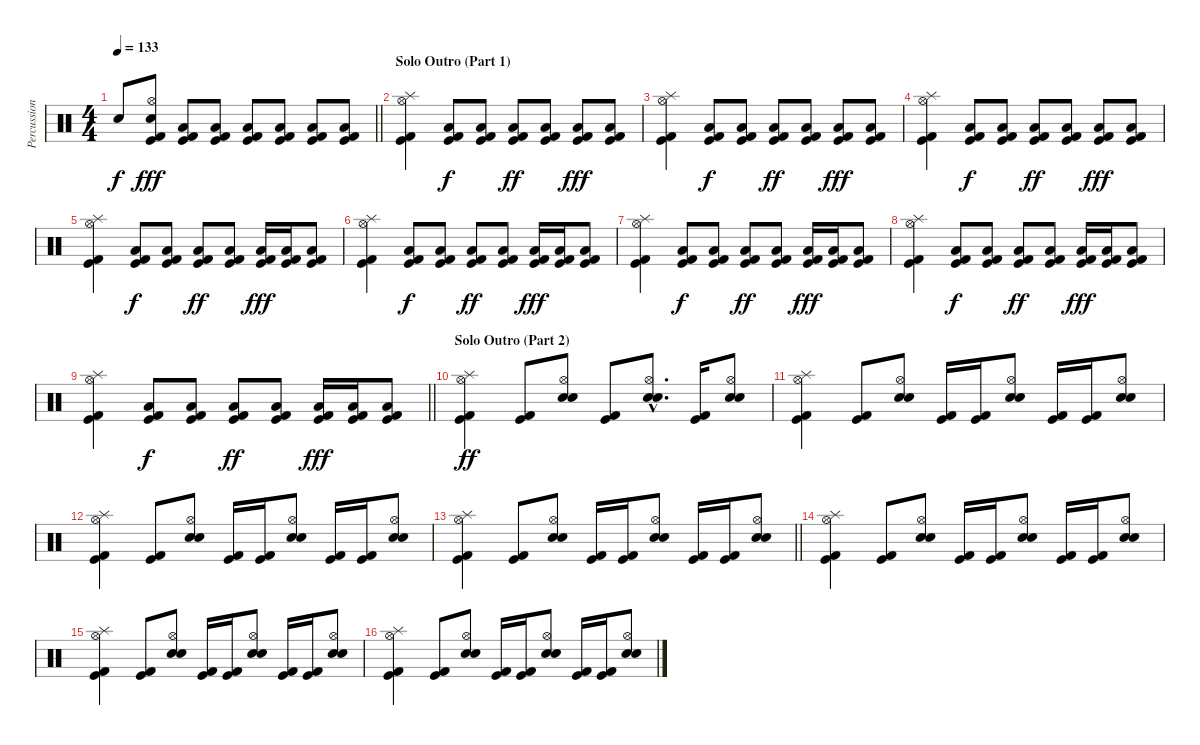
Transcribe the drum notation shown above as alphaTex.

\track ("Percussion" "Percussion") {instrument percussion}
\staff {score}
\articulation defaults
\ts (4 4)
\tempo 133
\clef neutral
\barLineRight lightlight
\ks c "Snare (hit)"{t}.8{dy f}
("Hi-Hat (open)" "Snare (hit) 2" "Kick (hit)" "Kick (hit) 2").8{dy fff} ("Low Tom (hit)" "Kick (hit)" "Kick (hit) 2").8 ("Low Tom (hit)" "Kick (hit)" "Kick (hit) 2").8 ("Low Tom (hit)" "Kick (hit)" "Kick (hit) 2").8 ("Low Tom (hit)" "Kick (hit)" "Kick (hit) 2").8 ("Low Tom (hit)" "Kick (hit)" "Kick (hit) 2").8 ("Low Tom (hit)" "Kick (hit)" "Kick (hit) 2").8 |
\section ("" "Solo Outro (Part 1)")
("Splash (hit)" "Hi-Hat (open)" "Kick (hit)" "Kick (hit) 2").4 ("Low Tom (hit)" "Kick (hit)" "Kick (hit) 2").8{dy f} ("Low Tom (hit)" "Kick (hit)" "Kick (hit) 2").8 ("Low Tom (hit)" "Kick (hit)" "Kick (hit) 2").8{dy ff} ("Low Tom (hit)" "Kick (hit)" "Kick (hit) 2").8 ("Low Tom (hit)" "Kick (hit)" "Kick (hit) 2").8{dy fff} ("Low Tom (hit)" "Kick (hit)" "Kick (hit) 2").8 |
("Splash (hit)" "Hi-Hat (open)" "Kick (hit)" "Kick (hit) 2").4 ("Low Tom (hit)" "Kick (hit)" "Kick (hit) 2").8{dy f} ("Low Tom (hit)" "Kick (hit)" "Kick (hit) 2").8 ("Low Tom (hit)" "Kick (hit)" "Kick (hit) 2").8{dy ff} ("Low Tom (hit)" "Kick (hit)" "Kick (hit) 2").8 ("Low Tom (hit)" "Kick (hit)" "Kick (hit) 2").8{dy fff} ("Low Tom (hit)" "Kick (hit)" "Kick (hit) 2").8 |
("Splash (hit)" "Hi-Hat (open)" "Kick (hit)" "Kick (hit) 2").4 ("Low Tom (hit)" "Kick (hit)" "Kick (hit) 2").8{dy f} ("Low Tom (hit)" "Kick (hit)" "Kick (hit) 2").8 ("Low Tom (hit)" "Kick (hit)" "Kick (hit) 2").8{dy ff} ("Low Tom (hit)" "Kick (hit)" "Kick (hit) 2").8 ("Low Tom (hit)" "Kick (hit)" "Kick (hit) 2").8{dy fff} ("Low Tom (hit)" "Kick (hit)" "Kick (hit) 2").8 |
("Splash (hit)" "Hi-Hat (open)" "Kick (hit)" "Kick (hit) 2").4 ("Low Tom (hit)" "Kick (hit)" "Kick (hit) 2").8{dy f} ("Low Tom (hit)" "Kick (hit)" "Kick (hit) 2").8 ("Low Tom (hit)" "Kick (hit)" "Kick (hit) 2").8{dy ff} ("Low Tom (hit)" "Kick (hit)" "Kick (hit) 2").8 ("Low Tom (hit)" "Kick (hit)" "Kick (hit) 2").16{dy fff} ("Low Tom (hit)" "Kick (hit)" "Kick (hit) 2").16 ("Low Tom (hit)" "Kick (hit)" "Kick (hit) 2").8 |
("Splash (hit)" "Hi-Hat (open)" "Kick (hit)" "Kick (hit) 2").4 ("Low Tom (hit)" "Kick (hit)" "Kick (hit) 2").8{dy f} ("Low Tom (hit)" "Kick (hit)" "Kick (hit) 2").8 ("Low Tom (hit)" "Kick (hit)" "Kick (hit) 2").8{dy ff} ("Low Tom (hit)" "Kick (hit)" "Kick (hit) 2").8 ("Low Tom (hit)" "Kick (hit)" "Kick (hit) 2").16{dy fff} ("Low Tom (hit)" "Kick (hit)" "Kick (hit) 2").16 ("Low Tom (hit)" "Kick (hit)" "Kick (hit) 2").8 |
("Splash (hit)" "Hi-Hat (open)" "Kick (hit)" "Kick (hit) 2").4 ("Low Tom (hit)" "Kick (hit)" "Kick (hit) 2").8{dy f} ("Low Tom (hit)" "Kick (hit)" "Kick (hit) 2").8 ("Low Tom (hit)" "Kick (hit)" "Kick (hit) 2").8{dy ff} ("Low Tom (hit)" "Kick (hit)" "Kick (hit) 2").8 ("Low Tom (hit)" "Kick (hit)" "Kick (hit) 2").16{dy fff} ("Low Tom (hit)" "Kick (hit)" "Kick (hit) 2").16 ("Low Tom (hit)" "Kick (hit)" "Kick (hit) 2").8 |
("Splash (hit)" "Hi-Hat (open)" "Kick (hit)" "Kick (hit) 2").4 ("Low Tom (hit)" "Kick (hit)" "Kick (hit) 2").8{dy f} ("Low Tom (hit)" "Kick (hit)" "Kick (hit) 2").8 ("Low Tom (hit)" "Kick (hit)" "Kick (hit) 2").8{dy ff} ("Low Tom (hit)" "Kick (hit)" "Kick (hit) 2").8 ("Low Tom (hit)" "Kick (hit)" "Kick (hit) 2").16{dy fff} ("Low Tom (hit)" "Kick (hit)" "Kick (hit) 2").16 ("Low Tom (hit)" "Kick (hit)" "Kick (hit) 2").8 |
\barLineRight lightlight
("Splash (hit)" "Hi-Hat (open)" "Kick (hit)" "Kick (hit) 2").4 ("Low Tom (hit)" "Kick (hit)" "Kick (hit) 2").8{dy f} ("Low Tom (hit)" "Kick (hit)" "Kick (hit) 2").8 ("Low Tom (hit)" "Kick (hit)" "Kick (hit) 2").8{dy ff} ("Low Tom (hit)" "Kick (hit)" "Kick (hit) 2").8 ("Low Tom (hit)" "Kick (hit)" "Kick (hit) 2").16{dy fff} ("Low Tom (hit)" "Kick (hit)" "Kick (hit) 2").16 ("Low Tom (hit)" "Kick (hit)" "Kick (hit) 2").8 |
\section ("" "Solo Outro (Part 2)")
("Splash (hit)" "Hi-Hat (open)" "Kick (hit)" "Kick (hit) 2").4{dy ff} ("Kick (hit)" "Kick (hit) 2").8 ("Hi-Hat (open)" "Snare (hit) 2" "Electric Snare (hit)").8 ("Kick (hit)" "Kick (hit) 2").8 ("Hi-Hat (open)"{hac} "Snare (hit) 2"{hac} "Electric Snare (hit)"{hac}).8{d} ("Kick (hit)" "Kick (hit) 2").16 ("Hi-Hat (open)" "Snare (hit) 2" "Electric Snare (hit)").8 |
("Splash (hit)" "Hi-Hat (open)" "Kick (hit)" "Kick (hit) 2").4 ("Kick (hit)" "Kick (hit) 2").8 ("Hi-Hat (open)" "Snare (hit) 2" "Electric Snare (hit)").8 ("Kick (hit)" "Kick (hit) 2").16 ("Kick (hit)" "Kick (hit) 2").16 ("Hi-Hat (open)" "Snare (hit) 2" "Electric Snare (hit)").8 ("Kick (hit)" "Kick (hit) 2").16 ("Kick (hit)" "Kick (hit) 2").16 ("Hi-Hat (open)" "Snare (hit) 2" "Electric Snare (hit)").8 |
("Splash (hit)" "Hi-Hat (open)" "Kick (hit)" "Kick (hit) 2").4 ("Kick (hit)" "Kick (hit) 2").8 ("Hi-Hat (open)" "Snare (hit) 2" "Electric Snare (hit)").8 ("Kick (hit)" "Kick (hit) 2").16 ("Kick (hit)" "Kick (hit) 2").16 ("Hi-Hat (open)" "Snare (hit) 2" "Electric Snare (hit)").8 ("Kick (hit)" "Kick (hit) 2").16 ("Kick (hit)" "Kick (hit) 2").16 ("Hi-Hat (open)" "Snare (hit) 2" "Electric Snare (hit)").8 |
\barLineRight lightlight
("Splash (hit)" "Hi-Hat (open)" "Kick (hit)" "Kick (hit) 2").4 ("Kick (hit)" "Kick (hit) 2").8 ("Hi-Hat (open)" "Snare (hit) 2" "Electric Snare (hit)").8 ("Kick (hit)" "Kick (hit) 2").16 ("Kick (hit)" "Kick (hit) 2").16 ("Hi-Hat (open)" "Snare (hit) 2" "Electric Snare (hit)").8 ("Kick (hit)" "Kick (hit) 2").16 ("Kick (hit)" "Kick (hit) 2").16 ("Hi-Hat (open)" "Snare (hit) 2" "Electric Snare (hit)").8 |
("Splash (hit)" "Hi-Hat (open)" "Kick (hit)" "Kick (hit) 2").4 ("Kick (hit)" "Kick (hit) 2").8 ("Hi-Hat (open)" "Snare (hit) 2" "Electric Snare (hit)").8 ("Kick (hit)" "Kick (hit) 2").16 ("Kick (hit)" "Kick (hit) 2").16 ("Hi-Hat (open)" "Snare (hit) 2" "Electric Snare (hit)").8 ("Kick (hit)" "Kick (hit) 2").16 ("Kick (hit)" "Kick (hit) 2").16 ("Hi-Hat (open)" "Snare (hit) 2" "Electric Snare (hit)").8 |
("Splash (hit)" "Hi-Hat (open)" "Kick (hit)" "Kick (hit) 2").4 ("Kick (hit)" "Kick (hit) 2").8 ("Hi-Hat (open)" "Snare (hit) 2" "Electric Snare (hit)").8 ("Kick (hit)" "Kick (hit) 2").16 ("Kick (hit)" "Kick (hit) 2").16 ("Hi-Hat (open)" "Snare (hit) 2" "Electric Snare (hit)").8 ("Kick (hit)" "Kick (hit) 2").16 ("Kick (hit)" "Kick (hit) 2").16 ("Hi-Hat (open)" "Snare (hit) 2" "Electric Snare (hit)").8 |
("Splash (hit)" "Hi-Hat (open)" "Kick (hit)" "Kick (hit) 2").4 ("Kick (hit)" "Kick (hit) 2").8 ("Hi-Hat (open)" "Snare (hit) 2" "Electric Snare (hit)").8 ("Kick (hit)" "Kick (hit) 2").16 ("Kick (hit)" "Kick (hit) 2").16 ("Hi-Hat (open)" "Snare (hit) 2" "Electric Snare (hit)").8 ("Kick (hit)" "Kick (hit) 2").16 ("Kick (hit)" "Kick (hit) 2").16 ("Hi-Hat (open)" "Snare (hit) 2" "Electric Snare (hit)").8
